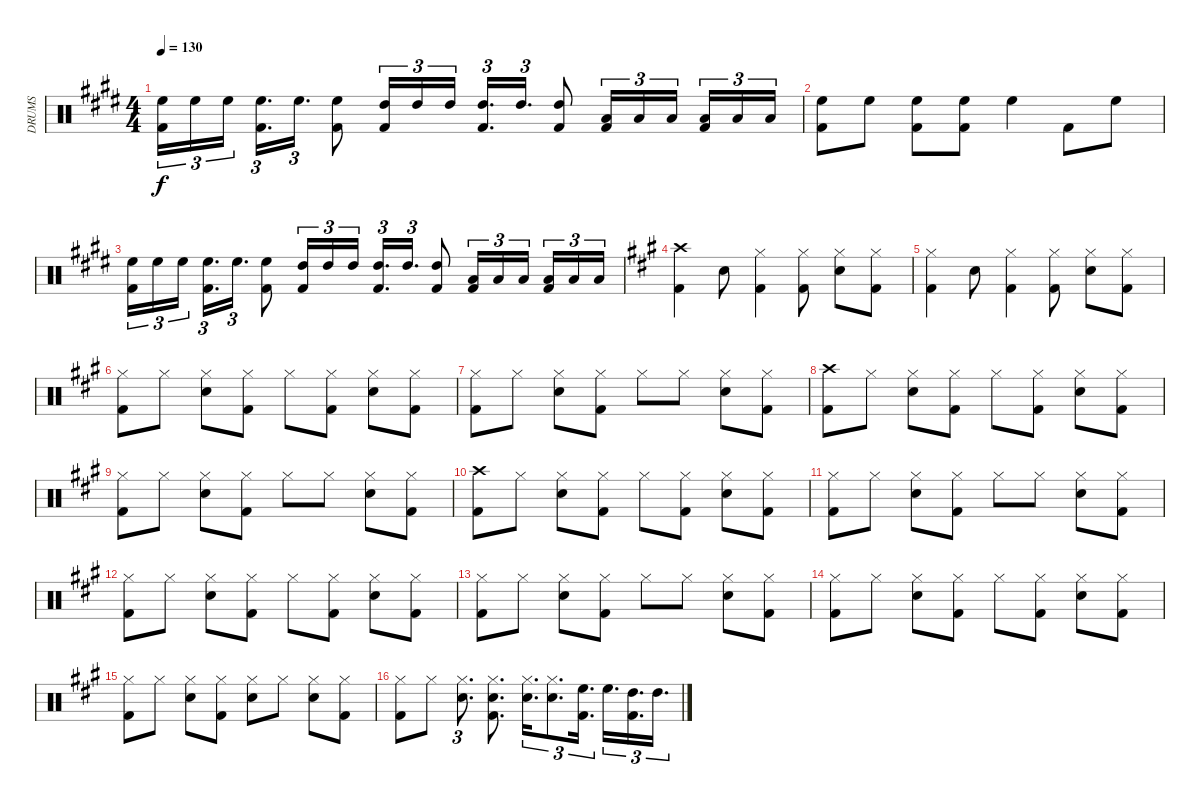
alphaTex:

\track ("DRUMS" "DRUMS") {instrument percussion}
\staff {score}
\articulation defaults
\ts (4 4)
\tempo 130
\clef neutral
\ks e
("High Floor Tom (hit)" "Kick (hit) 2").16{tu (3 2) dy f balance 1} "High Floor Tom (hit)".16{tu (3 2)} "High Floor Tom (hit)".16{tu (3 2) beam splitsecondary} ("High Floor Tom (hit)" "Kick (hit) 2").16{d tu (3 2)} "High Floor Tom (hit)".16{d tu (3 2)} ("High Floor Tom (hit)" "Kick (hit) 2").8 ("High Tom (hit)" "Kick (hit) 2").16{tu (3 2) balance 8} "High Tom (hit)".16{tu (3 2)} "High Tom (hit)".16{tu (3 2)} ("High Tom (hit)" "Kick (hit) 2").16{d tu (3 2)} "High Tom (hit)".16{d tu (3 2)} ("High Tom (hit)" "Kick (hit) 2").8 ("Low Tom (hit)" "Kick (hit) 2").16{tu (3 2) balance 16} "Low Tom (hit)".16{tu (3 2)} "Low Tom (hit)".16{tu (3 2) beam splitsecondary} ("Low Tom (hit)" "Kick (hit) 2").16{tu (3 2)} "Low Tom (hit)".16{tu (3 2)} "Low Tom (hit)".16{tu (3 2)} |
\ks c#minor
("High Floor Tom (hit)" "Kick (hit) 2").8{balance 8} "High Floor Tom (hit)".8 ("High Floor Tom (hit)" "Kick (hit) 2").8 ("High Floor Tom (hit)" "Kick (hit) 2").8 "High Floor Tom (hit)".4 "Kick (hit) 2".8 "High Floor Tom (hit)".8 |
\ks e
("High Floor Tom (hit)" "Kick (hit) 2").16{tu (3 2) balance 1} "High Floor Tom (hit)".16{tu (3 2)} "High Floor Tom (hit)".16{tu (3 2) beam splitsecondary} ("High Floor Tom (hit)" "Kick (hit) 2").16{d tu (3 2)} "High Floor Tom (hit)".16{d tu (3 2)} ("High Floor Tom (hit)" "Kick (hit) 2").8 ("High Tom (hit)" "Kick (hit) 2").16{tu (3 2) balance 8} "High Tom (hit)".16{tu (3 2)} "High Tom (hit)".16{tu (3 2)} ("High Tom (hit)" "Kick (hit) 2").16{d tu (3 2)} "High Tom (hit)".16{d tu (3 2)} ("High Tom (hit)" "Kick (hit) 2").8 ("Low Tom (hit)" "Kick (hit) 2").16{tu (3 2) balance 16} "Low Tom (hit)".16{tu (3 2)} "Low Tom (hit)".16{tu (3 2) beam splitsecondary} ("Low Tom (hit)" "Kick (hit) 2").16{tu (3 2)} "Low Tom (hit)".16{tu (3 2)} "Low Tom (hit)".16{tu (3 2)} |
\ks a
("Crash high (hit)" "Kick (hit) 2").4 "Snare (hit) 2".8 ("Hi-Hat (closed)" "Kick (hit) 2").4 ("Hi-Hat (closed)" "Kick (hit) 2").8 ("Hi-Hat (closed)" "Snare (hit) 2").8 ("Hi-Hat (closed)" "Kick (hit) 2").8 |
("Hi-Hat (closed)" "Kick (hit) 2").4 "Snare (hit) 2".8 ("Hi-Hat (closed)" "Kick (hit) 2").4 ("Hi-Hat (closed)" "Kick (hit) 2").8 ("Hi-Hat (closed)" "Snare (hit) 2").8 ("Hi-Hat (closed)" "Kick (hit) 2").8 |
("Hi-Hat (closed)" "Kick (hit) 2").8 "Hi-Hat (closed)".8 ("Hi-Hat (closed)" "Snare (hit) 2").8 ("Hi-Hat (closed)" "Kick (hit) 2").8 "Hi-Hat (closed)".8 ("Hi-Hat (closed)" "Kick (hit) 2").8 ("Hi-Hat (closed)" "Snare (hit) 2").8 ("Hi-Hat (closed)" "Kick (hit) 2").8 |
("Hi-Hat (closed)" "Kick (hit) 2").8 "Hi-Hat (closed)".8 ("Hi-Hat (closed)" "Snare (hit) 2").8 ("Hi-Hat (closed)" "Kick (hit) 2").8 "Hi-Hat (closed)".8 "Hi-Hat (closed)".8 ("Hi-Hat (closed)" "Snare (hit) 2").8 ("Hi-Hat (closed)" "Kick (hit) 2").8 |
("Crash high (hit)" "Kick (hit) 2").8 "Hi-Hat (closed)".8 ("Hi-Hat (closed)" "Snare (hit) 2").8 ("Hi-Hat (closed)" "Kick (hit) 2").8 "Hi-Hat (closed)".8 ("Hi-Hat (closed)" "Kick (hit) 2").8 ("Hi-Hat (closed)" "Snare (hit) 2").8 ("Hi-Hat (closed)" "Kick (hit) 2").8 |
("Hi-Hat (closed)" "Kick (hit) 2").8 "Hi-Hat (closed)".8 ("Hi-Hat (closed)" "Snare (hit) 2").8 ("Hi-Hat (closed)" "Kick (hit) 2").8 "Hi-Hat (closed)".8 "Hi-Hat (closed)".8 ("Hi-Hat (closed)" "Snare (hit) 2").8 ("Hi-Hat (closed)" "Kick (hit) 2").8 |
("Crash high (hit)" "Kick (hit) 2").8 "Hi-Hat (closed)".8 ("Hi-Hat (closed)" "Snare (hit) 2").8 ("Hi-Hat (closed)" "Kick (hit) 2").8 "Hi-Hat (closed)".8 ("Hi-Hat (closed)" "Kick (hit) 2").8 ("Hi-Hat (closed)" "Snare (hit) 2").8 ("Hi-Hat (closed)" "Kick (hit) 2").8 |
("Hi-Hat (closed)" "Kick (hit) 2").8 "Hi-Hat (closed)".8 ("Hi-Hat (closed)" "Snare (hit) 2").8 ("Hi-Hat (closed)" "Kick (hit) 2").8 "Hi-Hat (closed)".8 "Hi-Hat (closed)".8 ("Hi-Hat (closed)" "Snare (hit) 2").8 ("Hi-Hat (closed)" "Kick (hit) 2").8 |
("Hi-Hat (closed)" "Kick (hit) 2").8 "Hi-Hat (closed)".8 ("Hi-Hat (closed)" "Snare (hit) 2").8 ("Hi-Hat (closed)" "Kick (hit) 2").8 "Hi-Hat (closed)".8 ("Hi-Hat (closed)" "Kick (hit) 2").8 ("Hi-Hat (closed)" "Snare (hit) 2").8 ("Hi-Hat (closed)" "Kick (hit) 2").8 |
("Hi-Hat (closed)" "Kick (hit) 2").8 "Hi-Hat (closed)".8 ("Hi-Hat (closed)" "Snare (hit) 2").8 ("Hi-Hat (closed)" "Kick (hit) 2").8 "Hi-Hat (closed)".8 "Hi-Hat (closed)".8 ("Hi-Hat (closed)" "Snare (hit) 2").8 ("Hi-Hat (closed)" "Kick (hit) 2").8 |
("Hi-Hat (closed)" "Kick (hit) 2").8 "Hi-Hat (closed)".8 ("Hi-Hat (closed)" "Snare (hit) 2").8 ("Hi-Hat (closed)" "Kick (hit) 2").8 "Hi-Hat (closed)".8 ("Hi-Hat (closed)" "Kick (hit) 2").8 ("Hi-Hat (closed)" "Snare (hit) 2").8 ("Hi-Hat (closed)" "Kick (hit) 2").8 |
("Hi-Hat (closed)" "Kick (hit) 2").8 "Hi-Hat (closed)".8 ("Hi-Hat (closed)" "Snare (hit) 2").8 ("Hi-Hat (closed)" "Kick (hit) 2").8 ("Hi-Hat (closed)" "Snare (hit) 2").8 "Hi-Hat (closed)".8 ("Hi-Hat (closed)" "Snare (hit) 2").8 ("Hi-Hat (closed)" "Kick (hit) 2").8 |
("Hi-Hat (closed)" "Kick (hit) 2").8 "Hi-Hat (closed)".8 ("Hi-Hat (closed)" "Snare (hit) 2").8{d tu (3 2)} ("Hi-Hat (closed)" "Snare (hit) 2" "Kick (hit) 2").8{d} ("Hi-Hat (closed)" "Snare (hit) 2").16{d tu (3 2)} ("Hi-Hat (closed)" "Snare (hit) 2").8{d tu (3 2)} ("High Floor Tom (hit)" "Kick (hit) 2").16{d tu (3 2) balance 0} "High Floor Tom (hit)".16{d tu (3 2)} ("High Tom (hit)" "Kick (hit) 2").16{d tu (3 2) balance 16} "High Tom (hit)".16{d tu (3 2)}
